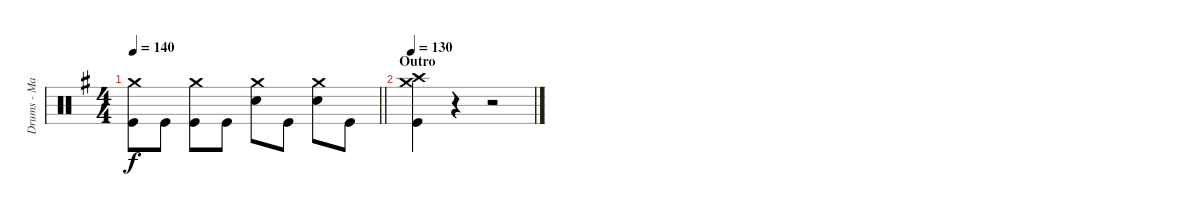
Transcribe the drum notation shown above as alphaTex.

\track ("Drums - Mark O'Connell" "Drums - Ma") {instrument percussion}
\staff {score}
\articulation defaults
\ts (4 4)
\tempo 140
\clef neutral
\barLineRight lightlight
\ks g
("Crash medium (hit)" "Kick (hit)").8{dy f} "Kick (hit)".8 ("Crash medium (hit)" "Kick (hit)").8 "Kick (hit)".8 ("Crash medium (hit)" "Snare (hit) 2").8 "Kick (hit)".8 ("Crash medium (hit)" "Snare (hit) 2").8 "Kick (hit)".8 |
\section ("" "Outro")
\tempo 130
("Crash high (hit)" "Crash medium (hit)" "Kick (hit)").4 r.4 r.2
